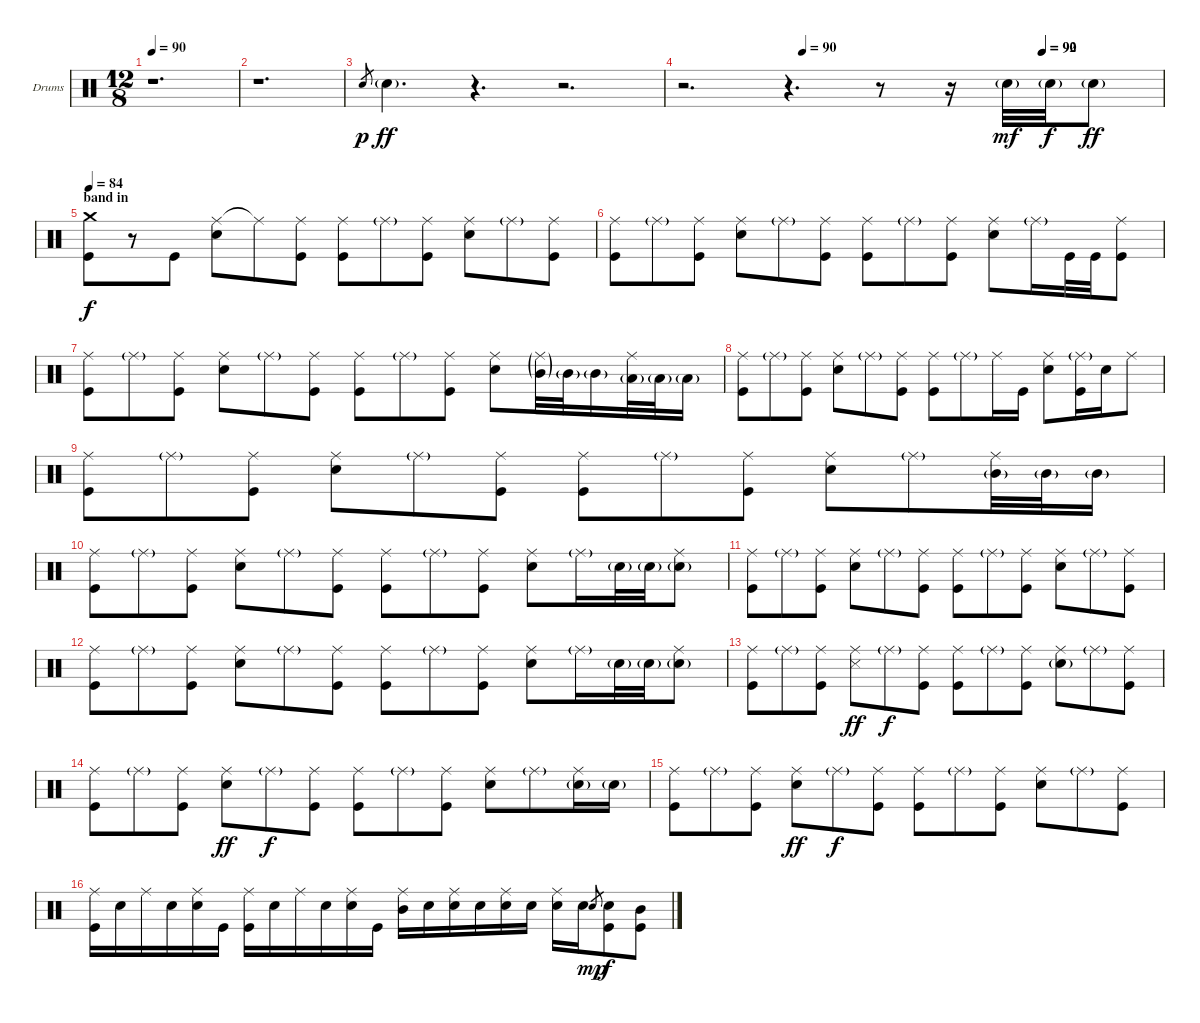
\bracketExtendMode groupsimilarinstruments
\firstSystemTrackNameOrientation horizontal
\otherSystemsTrackNameOrientation horizontal
\track ("Drumkit" "Drums") {instrument percussion}
\staff {score}
\articulation defaults
\ts (12 8)
\tempo 90
\clef neutral
\ks c
r.1{d dy p} |
r.1{d} |
"Snare (hit) 2".8{gr} "Snare (hit) 2"{g}.4{d dy ff} r.4{d} r.2{d} |
\tempo (90 0.25)
\tempo (92 0.7499)
\tempo (90 0.75)
r.2{d} r.4{d} r.8 r.16 "Snare (hit) 2"{g}.32{dy mf} "Snare (hit) 2"{g}.32{dy f} "Snare (hit) 2"{g}.8{dy ff} |
\section ("" "band in")
\tempo 84
("Crash medium (hit)" "Kick (hit)").8{dy f} r.8 "Kick (hit)".8 ("Ride (middle)" "Snare (hit) 2").8 "Ride (middle)"{t}.8 ("Ride (middle)" "Kick (hit)").8 ("Ride (middle)" "Kick (hit)").8 "Ride (middle)"{g}.8 ("Ride (middle)" "Kick (hit)").8 ("Ride (middle)" "Snare (hit) 2").8 "Ride (middle)"{g}.8 ("Ride (middle)" "Kick (hit)").8 |
("Ride (middle)" "Kick (hit)").8 "Ride (middle)"{g}.8 ("Ride (middle)" "Kick (hit)").8 ("Ride (middle)" "Snare (hit) 2").8 "Ride (middle)"{g}.8 ("Ride (middle)" "Kick (hit)").8 ("Ride (middle)" "Kick (hit)").8 "Ride (middle)"{g}.8 ("Ride (middle)" "Kick (hit)").8 ("Ride (middle)" "Snare (hit) 2").8 "Ride (middle)"{g}.16 "Kick (hit)".32 "Kick (hit)".32 ("Ride (middle)" "Kick (hit)").8 |
("Ride (middle)" "Kick (hit)").8 "Ride (middle)"{g}.8 ("Ride (middle)" "Kick (hit)").8 ("Ride (middle)" "Snare (hit) 2").8 "Ride (middle)"{g}.8 ("Ride (middle)" "Kick (hit)").8 ("Ride (middle)" "Kick (hit)").8 "Ride (middle)"{g}.8 ("Ride (middle)" "Kick (hit)").8 ("Ride (middle)" "Snare (hit) 2").8 ("Ride (middle)"{g} "Mid Tom (hit)"{g}).32 "Mid Tom (hit)"{g}.32 "Mid Tom (hit)"{g}.16 ("Ride (middle)" "Low Tom (hit)"{g}).32 "Low Tom (hit)"{g}.32 "Low Tom (hit)"{g}.16 |
("Ride (middle)" "Kick (hit)").8 "Ride (middle)"{g}.8 ("Ride (middle)" "Kick (hit)").8 ("Ride (middle)" "Snare (hit) 2").8 "Ride (middle)"{g}.8 ("Ride (middle)" "Kick (hit)").8 ("Ride (middle)" "Kick (hit)").8 "Ride (middle)"{g}.8 "Ride (middle)".16 "Kick (hit)".16 ("Ride (middle)" "Snare (hit) 2").8 ("Ride (middle)"{g} "Kick (hit)").16 "Snare (hit) 2".16 "Ride (middle)".8 |
("Ride (middle)" "Kick (hit)").8 "Ride (middle)"{g}.8 ("Ride (middle)" "Kick (hit)").8 ("Ride (middle)" "Snare (hit) 2").8 "Ride (middle)"{g}.8 ("Ride (middle)" "Kick (hit)").8 ("Ride (middle)" "Kick (hit)").8 "Ride (middle)"{g}.8 ("Ride (middle)" "Kick (hit)").8 ("Ride (middle)" "Snare (hit) 2").8 "Ride (middle)"{g}.8 ("Ride (middle)" "Mid Tom (hit)"{g}).32 "Mid Tom (hit)"{g}.32 "Mid Tom (hit)"{g}.16 |
("Ride (middle)" "Kick (hit)").8 "Ride (middle)"{g}.8 ("Ride (middle)" "Kick (hit)").8 ("Ride (middle)" "Snare (hit) 2").8 "Ride (middle)"{g}.8 ("Ride (middle)" "Kick (hit)").8 ("Ride (middle)" "Kick (hit)").8 "Ride (middle)"{g}.8 ("Ride (middle)" "Kick (hit)").8 ("Ride (middle)" "Snare (hit) 2").8 "Ride (middle)"{g}.16 "Snare (hit) 2"{g}.32 "Snare (hit) 2"{g}.32 ("Ride (middle)" "Snare (hit) 2"{g}).8 |
("Ride (middle)" "Kick (hit)").8 "Ride (middle)"{g}.8 ("Ride (middle)" "Kick (hit)").8 ("Ride (middle)" "Snare (hit) 2").8 "Ride (middle)"{g}.8 ("Ride (middle)" "Kick (hit)").8 ("Ride (middle)" "Kick (hit)").8 "Ride (middle)"{g}.8 ("Ride (middle)" "Kick (hit)").8 ("Ride (middle)" "Snare (hit) 2").8 "Ride (middle)"{g}.8 ("Ride (middle)" "Kick (hit)").8 |
("Ride (middle)" "Kick (hit)").8 "Ride (middle)"{g}.8 ("Ride (middle)" "Kick (hit)").8 ("Ride (middle)" "Snare (hit) 2").8 "Ride (middle)"{g}.8 ("Ride (middle)" "Kick (hit)").8 ("Ride (middle)" "Kick (hit)").8 "Ride (middle)"{g}.8 ("Ride (middle)" "Kick (hit)").8 ("Ride (middle)" "Snare (hit) 2").8 "Ride (middle)"{g}.16 "Snare (hit) 2"{g}.32 "Snare (hit) 2"{g}.32 ("Ride (middle)" "Snare (hit) 2"{g}).8 |
("Ride (middle)" "Kick (hit)").8 "Ride (middle)"{g}.8 ("Ride (middle)" "Kick (hit)").8 ("Ride (middle)" "Snare (side stick) 3").8{dy ff} "Ride (middle)"{g}.8{dy f} ("Ride (middle)" "Kick (hit)").8 ("Ride (middle)" "Kick (hit)").8 "Ride (middle)"{g}.8 ("Ride (middle)" "Kick (hit)").8 ("Ride (middle)" "Snare (hit) 2"{g}).8 "Ride (middle)"{g}.8 ("Ride (middle)" "Kick (hit)").8 |
("Ride (middle)" "Kick (hit)").8 "Ride (middle)"{g}.8 ("Ride (middle)" "Kick (hit)").8 ("Ride (middle)" "Snare (hit) 2").8{dy ff} "Ride (middle)"{g}.8{dy f} ("Ride (middle)" "Kick (hit)").8 ("Ride (middle)" "Kick (hit)").8 "Ride (middle)"{g}.8 ("Ride (middle)" "Kick (hit)").8 ("Ride (middle)" "Snare (hit) 2").8 "Ride (middle)"{g}.8 ("Ride (middle)" "Snare (hit) 2"{g}).16 "Snare (hit) 2"{g}.16 |
("Ride (middle)" "Kick (hit)").8 "Ride (middle)"{g}.8 ("Ride (middle)" "Kick (hit)").8 ("Ride (middle)" "Snare (hit) 2").8{dy ff} "Ride (middle)"{g}.8{dy f} ("Ride (middle)" "Kick (hit)").8 ("Ride (middle)" "Kick (hit)").8 "Ride (middle)"{g}.8 ("Ride (middle)" "Kick (hit)").8 ("Ride (middle)" "Snare (hit) 2").8 "Ride (middle)"{g}.8 ("Ride (middle)" "Kick (hit)").8 |
("Ride (middle)" "Kick (hit)").16 "Snare (hit) 2".16 "Ride (middle)".16 "Snare (hit) 2".16 ("Ride (middle)" "Snare (hit) 2").16 "Kick (hit)".16 ("Ride (middle)" "Kick (hit)").16 "Snare (hit) 2".16 "Ride (middle)".16 "Snare (hit) 2".16 ("Ride (middle)" "Snare (hit) 2").16 "Kick (hit)".16 ("Ride (middle)" "Mid Tom (hit)").16 "Snare (hit) 2".16 ("Ride (middle)" "Snare (hit) 2").16 "Snare (hit) 2".16 ("Ride (middle)" "Snare (hit) 2").16 "Snare (hit) 2".16 ("Ride (middle)" "Snare (hit) 2").16 "Snare (hit) 2".16 "Snare (hit) 2".8{gr dy mp} ("Snare (hit) 2" "Kick (hit)").8{dy f} ("Mid Tom (hit)" "Kick (hit)").8
